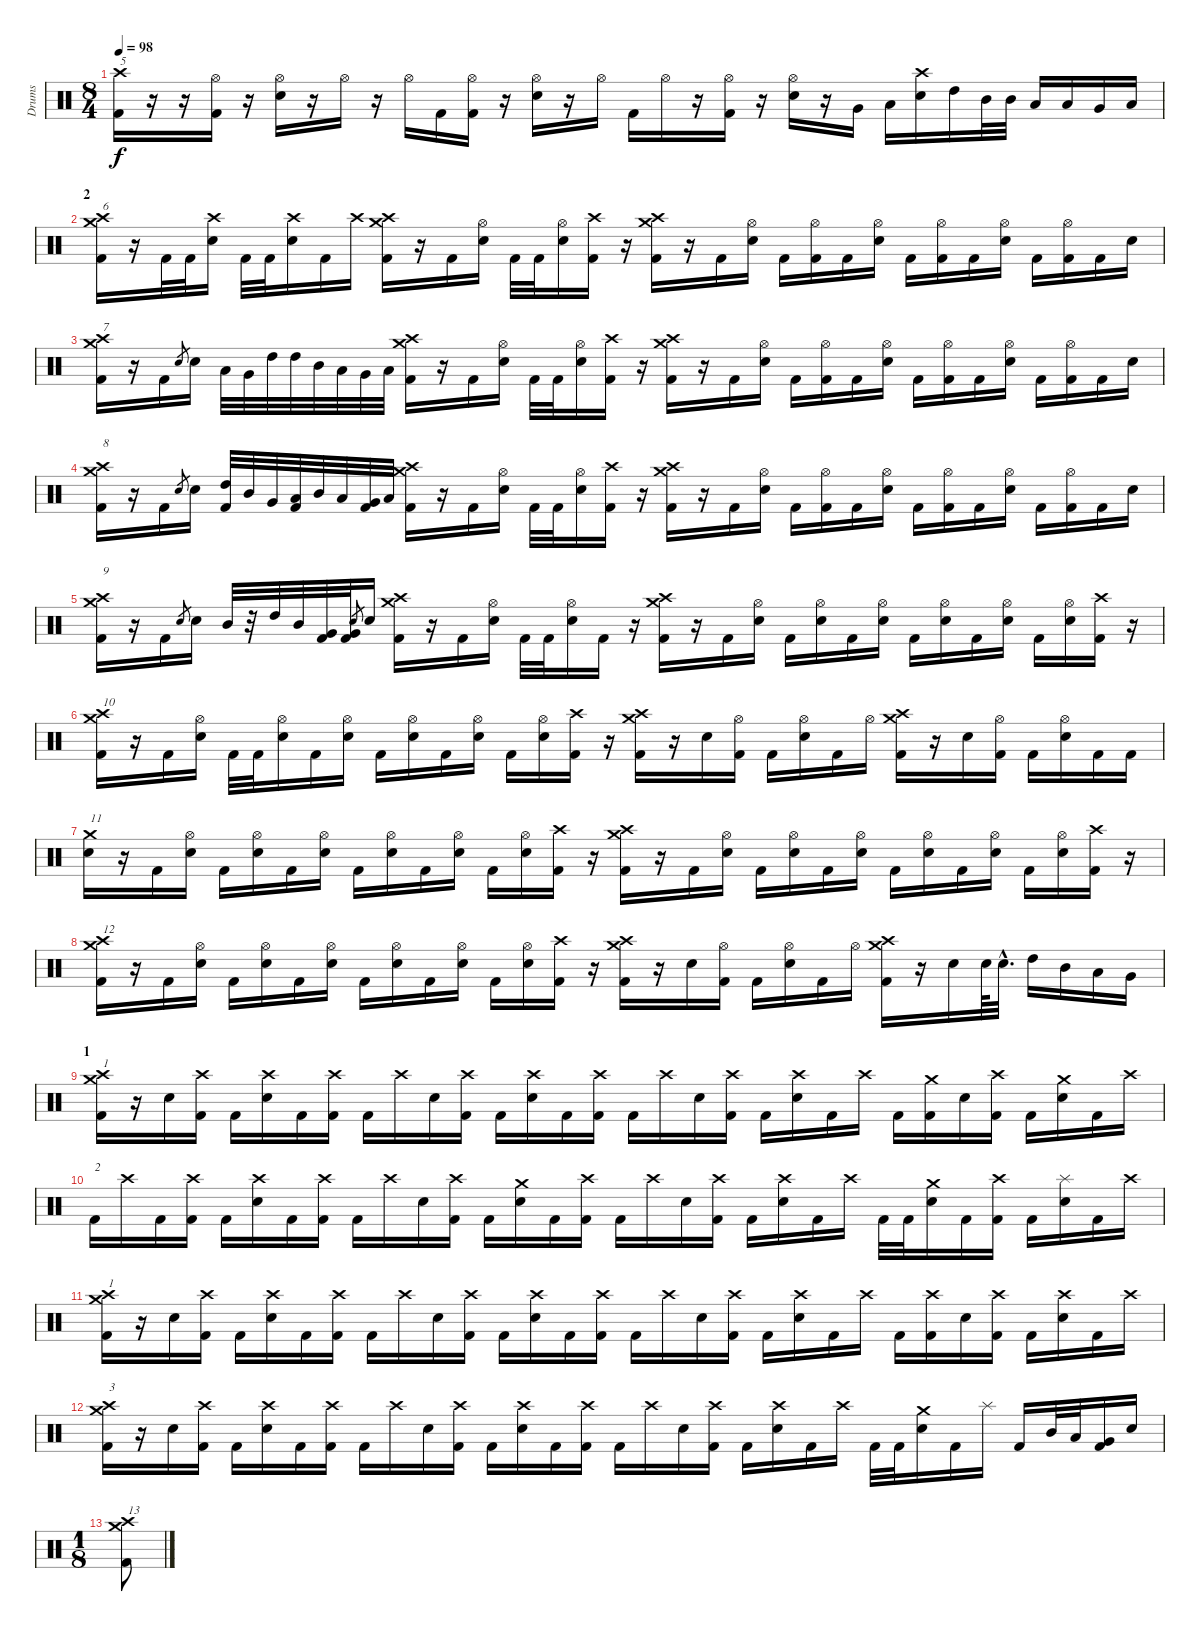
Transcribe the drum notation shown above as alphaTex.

\track ("Drums" "Drums") {instrument percussion}
\staff {score}
\articulation defaults
\ts (8 4)
\tempo 98
\clef neutral
\ks c
("Crash high (hit)" "Kick (hit) 2").16{txt "5" dy f} r.16 r.16 ("Hi-Hat (open)" "Kick (hit) 2").16 r.16 ("Hi-Hat (open)" "Snare (hit) 2").16 r.16 "Hi-Hat (open)".16 r.16 "Hi-Hat (open)".16 "Kick (hit) 2".16 ("Hi-Hat (open)" "Kick (hit) 2").16 r.16 ("Hi-Hat (open)" "Snare (hit) 2").16 r.16 "Hi-Hat (open)".16 "Kick (hit) 2".16 "Hi-Hat (open)".16 r.16 ("Hi-Hat (open)" "Kick (hit) 2").16 r.16 ("Hi-Hat (open)" "Snare (hit) 2").16 r.16 "Very Low Tom (hit)".16 "Low Floor Tom (hit)".16 ("Crash high (hit)" "Snare (hit) 2").16 "High Tom (hit)".16 "Mid Tom (hit)".32 "Mid Tom (hit)".32 "Low Tom (hit)".16 "Low Tom (hit)".16 "Very Low Tom (hit)".16 "Low Floor Tom (hit)".16 |
\section ("" "2")
("Crash high (hit)" "Crash medium (hit)" "Kick (hit) 2").16{txt "6"} r.16 "Kick (hit) 2".32 "Kick (hit) 2".32 ("Crash high (hit)" "Snare (hit) 2").16 "Kick (hit) 2".32 "Kick (hit) 2".32 ("Crash high (hit)" "Snare (hit) 2").16 "Kick (hit) 2".16 "Crash high (hit)".16 ("Crash high (hit)" "Crash medium (hit)" "Kick (hit) 2").16 r.16 "Kick (hit) 2".16 ("Hi-Hat (open)" "Snare (hit) 2").16 "Kick (hit) 2".32 "Kick (hit) 2".32 ("Hi-Hat (open)" "Snare (hit) 2").16 ("Crash high (hit)" "Kick (hit) 2").16 r.16 ("Crash high (hit)" "Crash medium (hit)" "Kick (hit) 2").16 r.16 "Kick (hit) 2".16 ("Hi-Hat (open)" "Snare (hit) 2").16 "Kick (hit) 2".16 ("Hi-Hat (open)" "Kick (hit) 2").16 "Kick (hit) 2".16 ("Hi-Hat (open)" "Snare (hit) 2").16 "Kick (hit) 2".16 ("Hi-Hat (open)" "Kick (hit) 2").16 "Kick (hit) 2".16 ("Hi-Hat (open)" "Snare (hit) 2").16 "Kick (hit) 2".16 ("Hi-Hat (open)" "Kick (hit) 2").16 "Kick (hit) 2".16 "Snare (hit) 2".16 |
("Crash high (hit)" "Crash medium (hit)" "Kick (hit) 2").16{txt "7"} r.16 "Kick (hit) 2".16 "Snare (hit) 2".8{gr} "Snare (hit) 2".16 "Low Floor Tom (hit)".32 "Very Low Tom (hit)".32 "High Tom (hit)".32 "High Tom (hit)".32 "Mid Tom (hit)".32 "Low Tom (hit)".32 "Very Low Tom (hit)".32 "Low Floor Tom (hit)".32 ("Crash high (hit)" "Crash medium (hit)" "Kick (hit) 2").16 r.16 "Kick (hit) 2".16 ("Hi-Hat (open)" "Snare (hit) 2").16 "Kick (hit) 2".32 "Kick (hit) 2".32 ("Hi-Hat (open)" "Snare (hit) 2").16 ("Crash high (hit)" "Kick (hit) 2").16 r.16 ("Crash high (hit)" "Crash medium (hit)" "Kick (hit) 2").16 r.16 "Kick (hit) 2".16 ("Hi-Hat (open)" "Snare (hit) 2").16 "Kick (hit) 2".16 ("Hi-Hat (open)" "Kick (hit) 2").16 "Kick (hit) 2".16 ("Hi-Hat (open)" "Snare (hit) 2").16 "Kick (hit) 2".16 ("Hi-Hat (open)" "Kick (hit) 2").16 "Kick (hit) 2".16 ("Hi-Hat (open)" "Snare (hit) 2").16 "Kick (hit) 2".16 ("Hi-Hat (open)" "Kick (hit) 2").16 "Kick (hit) 2".16 "Snare (hit) 2".16 |
("Crash high (hit)" "Crash medium (hit)" "Kick (hit) 2").16{txt "8"} r.16 "Kick (hit) 2".16 "Snare (hit) 2".8{gr} "Snare (hit) 2".16 ("High Tom (hit)" "Kick (hit) 2").32 "Mid Tom (hit)".32 "Very Low Tom (hit)".32 ("Low Floor Tom (hit)" "Kick (hit) 2").32 "Mid Tom (hit)".32 "Low Tom (hit)".32 ("Very Low Tom (hit)" "Kick (hit) 2").32 "Low Floor Tom (hit)".32 ("Crash high (hit)" "Crash medium (hit)" "Kick (hit) 2").16 r.16 "Kick (hit) 2".16 ("Hi-Hat (open)" "Snare (hit) 2").16 "Kick (hit) 2".32 "Kick (hit) 2".32 ("Hi-Hat (open)" "Snare (hit) 2").16 ("Crash high (hit)" "Kick (hit) 2").16 r.16 ("Crash high (hit)" "Crash medium (hit)" "Kick (hit) 2").16 r.16 "Kick (hit) 2".16 ("Hi-Hat (open)" "Snare (hit) 2").16 "Kick (hit) 2".16 ("Hi-Hat (open)" "Kick (hit) 2").16 "Kick (hit) 2".16 ("Hi-Hat (open)" "Snare (hit) 2").16 "Kick (hit) 2".16 ("Hi-Hat (open)" "Kick (hit) 2").16 "Kick (hit) 2".16 ("Hi-Hat (open)" "Snare (hit) 2").16 "Kick (hit) 2".16 ("Hi-Hat (open)" "Kick (hit) 2").16 "Kick (hit) 2".16 "Snare (hit) 2".16 |
("Crash high (hit)" "Crash medium (hit)" "Kick (hit) 2").16{txt "9"} r.16 "Kick (hit) 2".16 "Snare (hit) 2".8{gr} "Snare (hit) 2".16 "Mid Tom (hit)".32 r.32 "High Tom (hit)".32 "Mid Tom (hit)".32 ("Very Low Tom (hit)" "Kick (hit) 2").32 ("Very Low Tom (hit)" "Kick (hit) 2").32 "Snare (hit) 2".8{gr} "Snare (hit) 2".16 ("Crash high (hit)" "Crash medium (hit)" "Kick (hit) 2").16 r.16 "Kick (hit) 2".16 ("Hi-Hat (open)" "Snare (hit) 2").16 "Kick (hit) 2".32 "Kick (hit) 2".32 ("Hi-Hat (open)" "Snare (hit) 2").16 "Kick (hit) 2".16 r.16 ("Crash high (hit)" "Crash medium (hit)" "Kick (hit) 2").16 r.16 "Kick (hit) 2".16 ("Hi-Hat (open)" "Snare (hit) 2").16 "Kick (hit) 2".16 ("Hi-Hat (open)" "Snare (hit) 2").16 "Kick (hit) 2".16 ("Hi-Hat (open)" "Snare (hit) 2").16 "Kick (hit) 2".16 ("Hi-Hat (open)" "Snare (hit) 2").16 "Kick (hit) 2".16 ("Hi-Hat (open)" "Snare (hit) 2").16 "Kick (hit) 2".16 ("Hi-Hat (open)" "Snare (hit) 2").16 ("Crash high (hit)" "Kick (hit) 2").16 r.16 |
("Crash high (hit)" "Crash medium (hit)" "Kick (hit) 2").16{txt "10"} r.16 "Kick (hit) 2".16 ("Hi-Hat (open)" "Snare (hit) 2").16 "Kick (hit) 2".32 "Kick (hit) 2".32 ("Hi-Hat (open)" "Snare (hit) 2").16 "Kick (hit) 2".16 ("Hi-Hat (open)" "Snare (hit) 2").16 "Kick (hit) 2".16 ("Hi-Hat (open)" "Snare (hit) 2").16 "Kick (hit) 2".16 ("Hi-Hat (open)" "Snare (hit) 2").16 "Kick (hit) 2".16 ("Hi-Hat (open)" "Snare (hit) 2").16 ("Crash high (hit)" "Kick (hit) 2").16 r.16 ("Crash high (hit)" "Crash medium (hit)" "Kick (hit) 2").16 r.16 "Snare (hit) 2".16 ("Hi-Hat (open)" "Kick (hit) 2").16 "Kick (hit) 2".16 ("Hi-Hat (open)" "Snare (hit) 2").16 "Kick (hit) 2".16 "Hi-Hat (open)".16 ("Crash high (hit)" "Crash medium (hit)" "Kick (hit) 2").16 r.16 "Snare (hit) 2".16 ("Hi-Hat (open)" "Kick (hit) 2").16 "Kick (hit) 2".16 ("Hi-Hat (open)" "Snare (hit) 2").16 "Kick (hit) 2".16 "Kick (hit) 2".16 |
("Crash medium (hit)" "Snare (hit) 2").16{txt "11"} r.16 "Kick (hit) 2".16 ("Hi-Hat (open)" "Snare (hit) 2").16 "Kick (hit) 2".16 ("Hi-Hat (open)" "Snare (hit) 2").16 "Kick (hit) 2".16 ("Hi-Hat (open)" "Snare (hit) 2").16 "Kick (hit) 2".16 ("Hi-Hat (open)" "Snare (hit) 2").16 "Kick (hit) 2".16 ("Hi-Hat (open)" "Snare (hit) 2").16 "Kick (hit) 2".16 ("Hi-Hat (open)" "Snare (hit) 2").16 ("Crash high (hit)" "Kick (hit) 2").16 r.16 ("Crash high (hit)" "Crash medium (hit)" "Kick (hit) 2").16 r.16 "Kick (hit) 2".16 ("Hi-Hat (open)" "Snare (hit) 2").16 "Kick (hit) 2".16 ("Hi-Hat (open)" "Snare (hit) 2").16 "Kick (hit) 2".16 ("Hi-Hat (open)" "Snare (hit) 2").16 "Kick (hit) 2".16 ("Hi-Hat (open)" "Snare (hit) 2").16 "Kick (hit) 2".16 ("Hi-Hat (open)" "Snare (hit) 2").16 "Kick (hit) 2".16 ("Hi-Hat (open)" "Snare (hit) 2").16 ("Crash high (hit)" "Kick (hit) 2").16 r.16 |
("Crash high (hit)" "Crash medium (hit)" "Kick (hit) 2").16{txt "12"} r.16 "Kick (hit) 2".16 ("Hi-Hat (open)" "Snare (hit) 2").16 "Kick (hit) 2".16 ("Hi-Hat (open)" "Snare (hit) 2").16 "Kick (hit) 2".16 ("Hi-Hat (open)" "Snare (hit) 2").16 "Kick (hit) 2".16 ("Hi-Hat (open)" "Snare (hit) 2").16 "Kick (hit) 2".16 ("Hi-Hat (open)" "Snare (hit) 2").16 "Kick (hit) 2".16 ("Hi-Hat (open)" "Snare (hit) 2").16 ("Crash high (hit)" "Kick (hit) 2").16 r.16 ("Crash high (hit)" "Crash medium (hit)" "Kick (hit) 2").16 r.16 "Snare (hit) 2".16 ("Hi-Hat (open)" "Kick (hit) 2").16 "Kick (hit) 2".16 ("Hi-Hat (open)" "Snare (hit) 2").16 "Kick (hit) 2".16 "Hi-Hat (open)".16 ("Crash high (hit)" "Crash medium (hit)" "Kick (hit) 2").16 r.16 "Snare (hit) 2".16 "Snare (hit) 2".64 "Snare (hit) 2"{hac}.32{d} "High Tom (hit)".16 "Mid Tom (hit)".16 "Low Tom (hit)".16 "Very Low Tom (hit)".16 |
\section ("" "1")
("Crash high (hit)" "Crash medium (hit)" "Kick (hit) 2").16{txt "1"} r.16 "Snare (hit) 2".16 ("Crash high (hit)" "Kick (hit) 2").16 "Kick (hit) 2".16 ("Crash high (hit)" "Snare (hit) 2").16 "Kick (hit) 2".16 ("Crash high (hit)" "Kick (hit) 2").16 "Kick (hit) 2".16 "Crash high (hit)".16 "Snare (hit) 2".16 ("Crash high (hit)" "Kick (hit) 2").16 "Kick (hit) 2".16 ("Crash high (hit)" "Snare (hit) 2").16 "Kick (hit) 2".16 ("Crash high (hit)" "Kick (hit) 2").16 "Kick (hit) 2".16 "Crash high (hit)".16 "Snare (hit) 2".16 ("Crash high (hit)" "Kick (hit) 2").16 "Kick (hit) 2".16 ("Crash high (hit)" "Snare (hit) 2").16 "Kick (hit) 2".16 "Crash high (hit)".16 "Kick (hit) 2".16 ("Crash medium (hit)" "Kick (hit) 2").16 "Snare (hit) 2".16 ("Crash high (hit)" "Kick (hit) 2").16 "Kick (hit) 2".16 ("Crash medium (hit)" "Snare (hit) 2").16 "Kick (hit) 2".16 "Crash high (hit)".16 |
"Kick (hit) 2".16{txt "2"} "Crash high (hit)".16 "Kick (hit) 2".16 ("Crash high (hit)" "Kick (hit) 2").16 "Kick (hit) 2".16 ("Crash high (hit)" "Snare (hit) 2").16 "Kick (hit) 2".16 ("Crash high (hit)" "Kick (hit) 2").16 "Kick (hit) 2".16 "Crash high (hit)".16 "Snare (hit) 2".16 ("Crash high (hit)" "Kick (hit) 2").16 "Kick (hit) 2".16 ("Crash medium (hit)" "Snare (hit) 2").16 "Kick (hit) 2".16 ("Crash high (hit)" "Kick (hit) 2").16 "Kick (hit) 2".16 "Crash high (hit)".16 "Snare (hit) 2".16 ("Crash high (hit)" "Kick (hit) 2").16 "Kick (hit) 2".16 ("Crash high (hit)" "Snare (hit) 2").16 "Kick (hit) 2".16 "Crash high (hit)".16 "Kick (hit) 2".32 "Kick (hit) 2".32 ("Crash medium (hit)" "Snare (hit) 2").16 "Kick (hit) 2".16 ("Crash high (hit)" "Kick (hit) 2").16 "Kick (hit) 2".16 ("Splash (hit)" "Snare (hit) 2").16 "Kick (hit) 2".16 "Crash high (hit)".16 |
("Crash high (hit)" "Crash medium (hit)" "Kick (hit) 2").16{txt "1"} r.16 "Snare (hit) 2".16 ("Crash high (hit)" "Kick (hit) 2").16 "Kick (hit) 2".16 ("Crash high (hit)" "Snare (hit) 2").16 "Kick (hit) 2".16 ("Crash high (hit)" "Kick (hit) 2").16 "Kick (hit) 2".16 "Crash high (hit)".16 "Snare (hit) 2".16 ("Crash high (hit)" "Kick (hit) 2").16 "Kick (hit) 2".16 ("Crash high (hit)" "Snare (hit) 2").16 "Kick (hit) 2".16 ("Crash high (hit)" "Kick (hit) 2").16 "Kick (hit) 2".16 "Crash high (hit)".16 "Snare (hit) 2".16 ("Crash high (hit)" "Kick (hit) 2").16 "Kick (hit) 2".16 ("Crash high (hit)" "Snare (hit) 2").16 "Kick (hit) 2".16 "Crash high (hit)".16 "Kick (hit) 2".16 ("Crash high (hit)" "Kick (hit) 2").16 "Snare (hit) 2".16 ("Crash high (hit)" "Kick (hit) 2").16 "Kick (hit) 2".16 ("Crash high (hit)" "Snare (hit) 2").16 "Kick (hit) 2".16 "Crash high (hit)".16 |
("Crash high (hit)" "Crash medium (hit)" "Kick (hit) 2").16{txt "3"} r.16 "Snare (hit) 2".16 ("Crash high (hit)" "Kick (hit) 2").16 "Kick (hit) 2".16 ("Crash high (hit)" "Snare (hit) 2").16 "Kick (hit) 2".16 ("Crash high (hit)" "Kick (hit) 2").16 "Kick (hit) 2".16 "Crash high (hit)".16 "Snare (hit) 2".16 ("Crash high (hit)" "Kick (hit) 2").16 "Kick (hit) 2".16 ("Crash high (hit)" "Snare (hit) 2").16 "Kick (hit) 2".16 ("Crash high (hit)" "Kick (hit) 2").16 "Kick (hit) 2".16 "Crash high (hit)".16 "Snare (hit) 2".16 ("Crash high (hit)" "Kick (hit) 2").16 "Kick (hit) 2".16 ("Crash high (hit)" "Snare (hit) 2").16 "Kick (hit) 2".16 "Crash high (hit)".16 "Kick (hit) 2".32 "Kick (hit) 2".32 ("Crash medium (hit)" "Snare (hit) 2").16 "Kick (hit) 2".16 "Splash (hit)".16 "Kick (hit) 2".16 "Mid Tom (hit)".32 "Low Tom (hit)".32 ("Very Low Tom (hit)" "Kick (hit) 2").16 "Snare (hit) 2".16 |
\ts (1 8)
("Crash high (hit)" "Crash medium (hit)" "Kick (hit) 2").8{txt "13"}
